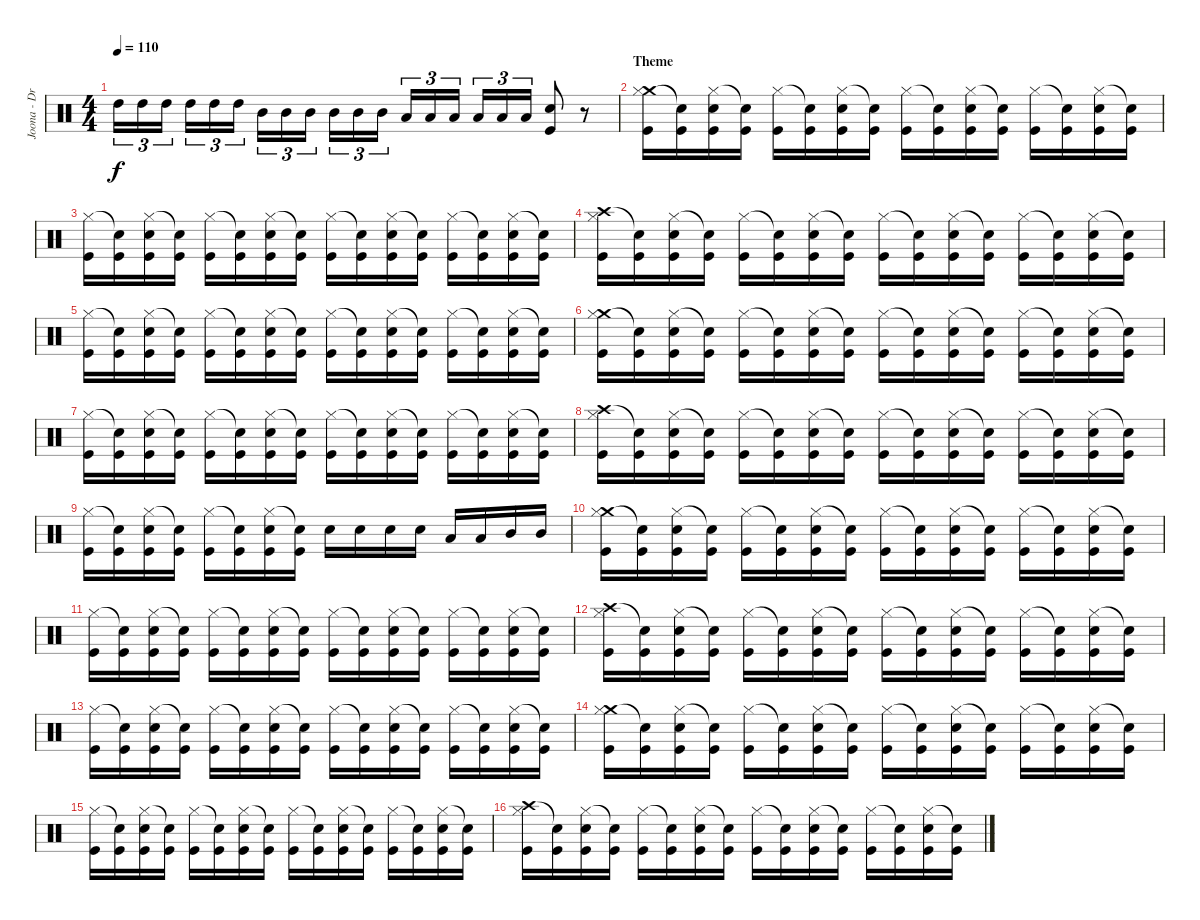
\track ("Joona - Drums" "Joona - Dr") {instrument percussion}
\staff {score}
\articulation defaults
\ts (4 4)
\tempo 110
\clef neutral
\ks c "High Tom (hit)".16{tu (3 2) dy f} "High Tom (hit)".16{tu (3 2)} "High Tom (hit)".16{tu (3 2)} "High Tom (hit)".16{tu (3 2)} "High Tom (hit)".16{tu (3 2)} "High Tom (hit)".16{tu (3 2)} "Mid Tom (hit)".16{tu (3 2)} "Mid Tom (hit)".16{tu (3 2)} "Mid Tom (hit)".16{tu (3 2)} "Mid Tom (hit)".16{tu (3 2)} "Mid Tom (hit)".16{tu (3 2)} "Mid Tom (hit)".16{tu (3 2)} "Low Tom (hit)".16{tu (3 2)} "Low Tom (hit)".16{tu (3 2)} "Low Tom (hit)".16{tu (3 2)} "Low Tom (hit)".16{tu (3 2)} "Low Tom (hit)".16{tu (3 2)} "Low Tom (hit)".16{tu (3 2)}
("Snare (hit) 2" "Kick (hit)").8 r.8 |
\section ("" "Theme")
("Crash medium (hit)" "Hi-Hat (closed)" "Kick (hit)").16 ("Snare (hit)"{t} "Kick (hit)").16 ("Hi-Hat (closed)" "Snare (hit) 2" "Kick (hit)").16 ("Snare (hit)"{t} "Kick (hit)").16 ("Hi-Hat (closed)" "Kick (hit)").16 ("Snare (hit)"{t} "Kick (hit)").16 ("Hi-Hat (closed)" "Snare (hit) 2" "Kick (hit)").16 ("Snare (hit)"{t} "Kick (hit)").16 ("Hi-Hat (closed)" "Kick (hit)").16 ("Snare (hit)"{t} "Kick (hit)").16 ("Hi-Hat (closed)" "Snare (hit) 2" "Kick (hit)").16 ("Snare (hit)"{t} "Kick (hit)").16 ("Hi-Hat (closed)" "Kick (hit)").16 ("Snare (hit)"{t} "Kick (hit)").16 ("Hi-Hat (closed)" "Snare (hit) 2" "Kick (hit)").16 ("Snare (hit)"{t} "Kick (hit)").16 |
("Hi-Hat (closed)" "Kick (hit)").16 ("Snare (hit)"{t} "Kick (hit)").16 ("Hi-Hat (closed)" "Snare (hit) 2" "Kick (hit)").16 ("Snare (hit)"{t} "Kick (hit)").16 ("Hi-Hat (closed)" "Kick (hit)").16 ("Snare (hit)"{t} "Kick (hit)").16 ("Hi-Hat (closed)" "Snare (hit) 2" "Kick (hit)").16 ("Snare (hit)"{t} "Kick (hit)").16 ("Hi-Hat (closed)" "Kick (hit)").16 ("Snare (hit)"{t} "Kick (hit)").16 ("Hi-Hat (closed)" "Snare (hit) 2" "Kick (hit)").16 ("Snare (hit)"{t} "Kick (hit)").16 ("Hi-Hat (closed)" "Kick (hit)").16 ("Snare (hit)"{t} "Kick (hit)").16 ("Hi-Hat (closed)" "Snare (hit) 2" "Kick (hit)").16 ("Snare (hit)"{t} "Kick (hit)").16 |
("Crash high (hit)" "Hi-Hat (closed)" "Kick (hit)").16 ("Snare (hit)"{t} "Kick (hit)").16 ("Hi-Hat (closed)" "Snare (hit) 2" "Kick (hit)").16 ("Snare (hit)"{t} "Kick (hit)").16 ("Hi-Hat (closed)" "Kick (hit)").16 ("Snare (hit)"{t} "Kick (hit)").16 ("Hi-Hat (closed)" "Snare (hit) 2" "Kick (hit)").16 ("Snare (hit)"{t} "Kick (hit)").16 ("Hi-Hat (closed)" "Kick (hit)").16 ("Snare (hit)"{t} "Kick (hit)").16 ("Hi-Hat (closed)" "Snare (hit) 2" "Kick (hit)").16 ("Snare (hit)"{t} "Kick (hit)").16 ("Hi-Hat (closed)" "Kick (hit)").16 ("Snare (hit)"{t} "Kick (hit)").16 ("Hi-Hat (closed)" "Snare (hit) 2" "Kick (hit)").16 ("Snare (hit)"{t} "Kick (hit)").16 |
("Hi-Hat (closed)" "Kick (hit)").16 ("Snare (hit)"{t} "Kick (hit)").16 ("Hi-Hat (closed)" "Snare (hit) 2" "Kick (hit)").16 ("Snare (hit)"{t} "Kick (hit)").16 ("Hi-Hat (closed)" "Kick (hit)").16 ("Snare (hit)"{t} "Kick (hit)").16 ("Hi-Hat (closed)" "Snare (hit) 2" "Kick (hit)").16 ("Snare (hit)"{t} "Kick (hit)").16 ("Hi-Hat (closed)" "Kick (hit)").16 ("Snare (hit)"{t} "Kick (hit)").16 ("Hi-Hat (closed)" "Snare (hit) 2" "Kick (hit)").16 ("Snare (hit)"{t} "Kick (hit)").16 ("Hi-Hat (closed)" "Kick (hit)").16 ("Snare (hit)"{t} "Kick (hit)").16 ("Hi-Hat (closed)" "Snare (hit) 2" "Kick (hit)").16 ("Snare (hit)"{t} "Kick (hit)").16 |
("Crash medium (hit)" "Hi-Hat (closed)" "Kick (hit)").16 ("Snare (hit)"{t} "Kick (hit)").16 ("Hi-Hat (closed)" "Snare (hit) 2" "Kick (hit)").16 ("Snare (hit)"{t} "Kick (hit)").16 ("Hi-Hat (closed)" "Kick (hit)").16 ("Snare (hit)"{t} "Kick (hit)").16 ("Hi-Hat (closed)" "Snare (hit) 2" "Kick (hit)").16 ("Snare (hit)"{t} "Kick (hit)").16 ("Hi-Hat (closed)" "Kick (hit)").16 ("Snare (hit)"{t} "Kick (hit)").16 ("Hi-Hat (closed)" "Snare (hit) 2" "Kick (hit)").16 ("Snare (hit)"{t} "Kick (hit)").16 ("Hi-Hat (closed)" "Kick (hit)").16 ("Snare (hit)"{t} "Kick (hit)").16 ("Hi-Hat (closed)" "Snare (hit) 2" "Kick (hit)").16 ("Snare (hit)"{t} "Kick (hit)").16 |
("Hi-Hat (closed)" "Kick (hit)").16 ("Snare (hit)"{t} "Kick (hit)").16 ("Hi-Hat (closed)" "Snare (hit) 2" "Kick (hit)").16 ("Snare (hit)"{t} "Kick (hit)").16 ("Hi-Hat (closed)" "Kick (hit)").16 ("Snare (hit)"{t} "Kick (hit)").16 ("Hi-Hat (closed)" "Snare (hit) 2" "Kick (hit)").16 ("Snare (hit)"{t} "Kick (hit)").16 ("Hi-Hat (closed)" "Kick (hit)").16 ("Snare (hit)"{t} "Kick (hit)").16 ("Hi-Hat (closed)" "Snare (hit) 2" "Kick (hit)").16 ("Snare (hit)"{t} "Kick (hit)").16 ("Hi-Hat (closed)" "Kick (hit)").16 ("Snare (hit)"{t} "Kick (hit)").16 ("Hi-Hat (closed)" "Snare (hit) 2" "Kick (hit)").16 ("Snare (hit)"{t} "Kick (hit)").16 |
("Crash high (hit)" "Hi-Hat (closed)" "Kick (hit)").16 ("Snare (hit)"{t} "Kick (hit)").16 ("Hi-Hat (closed)" "Snare (hit) 2" "Kick (hit)").16 ("Snare (hit)"{t} "Kick (hit)").16 ("Hi-Hat (closed)" "Kick (hit)").16 ("Snare (hit)"{t} "Kick (hit)").16 ("Hi-Hat (closed)" "Snare (hit) 2" "Kick (hit)").16 ("Snare (hit)"{t} "Kick (hit)").16 ("Hi-Hat (closed)" "Kick (hit)").16 ("Snare (hit)"{t} "Kick (hit)").16 ("Hi-Hat (closed)" "Snare (hit) 2" "Kick (hit)").16 ("Snare (hit)"{t} "Kick (hit)").16 ("Hi-Hat (closed)" "Kick (hit)").16 ("Snare (hit)"{t} "Kick (hit)").16 ("Hi-Hat (closed)" "Snare (hit) 2" "Kick (hit)").16 ("Snare (hit)"{t} "Kick (hit)").16 |
("Hi-Hat (closed)" "Kick (hit)").16 ("Snare (hit)"{t} "Kick (hit)").16 ("Hi-Hat (closed)" "Snare (hit) 2" "Kick (hit)").16 ("Snare (hit)"{t} "Kick (hit)").16 ("Hi-Hat (closed)" "Kick (hit)").16 ("Snare (hit)"{t} "Kick (hit)").16 ("Hi-Hat (closed)" "Snare (hit) 2" "Kick (hit)").16 ("Snare (hit)"{t} "Kick (hit)").16 "Snare (hit) 2".16 "Snare (hit) 2".16 "Snare (hit) 2".16 "Snare (hit) 2".16 "Low Tom (hit)".16 "Low Tom (hit)".16 "Mid Tom (hit)".16 "Mid Tom (hit)".16 |
("Crash medium (hit)" "Hi-Hat (closed)" "Kick (hit)").16 ("Snare (hit)"{t} "Kick (hit)").16 ("Hi-Hat (closed)" "Snare (hit) 2" "Kick (hit)").16 ("Snare (hit)"{t} "Kick (hit)").16 ("Hi-Hat (closed)" "Kick (hit)").16 ("Snare (hit)"{t} "Kick (hit)").16 ("Hi-Hat (closed)" "Snare (hit) 2" "Kick (hit)").16 ("Snare (hit)"{t} "Kick (hit)").16 ("Hi-Hat (closed)" "Kick (hit)").16 ("Snare (hit)"{t} "Kick (hit)").16 ("Hi-Hat (closed)" "Snare (hit) 2" "Kick (hit)").16 ("Snare (hit)"{t} "Kick (hit)").16 ("Hi-Hat (closed)" "Kick (hit)").16 ("Snare (hit)"{t} "Kick (hit)").16 ("Hi-Hat (closed)" "Snare (hit) 2" "Kick (hit)").16 ("Snare (hit)"{t} "Kick (hit)").16 |
("Hi-Hat (closed)" "Kick (hit)").16 ("Snare (hit)"{t} "Kick (hit)").16 ("Hi-Hat (closed)" "Snare (hit) 2" "Kick (hit)").16 ("Snare (hit)"{t} "Kick (hit)").16 ("Hi-Hat (closed)" "Kick (hit)").16 ("Snare (hit)"{t} "Kick (hit)").16 ("Hi-Hat (closed)" "Snare (hit) 2" "Kick (hit)").16 ("Snare (hit)"{t} "Kick (hit)").16 ("Hi-Hat (closed)" "Kick (hit)").16 ("Snare (hit)"{t} "Kick (hit)").16 ("Hi-Hat (closed)" "Snare (hit) 2" "Kick (hit)").16 ("Snare (hit)"{t} "Kick (hit)").16 ("Hi-Hat (closed)" "Kick (hit)").16 ("Snare (hit)"{t} "Kick (hit)").16 ("Hi-Hat (closed)" "Snare (hit) 2" "Kick (hit)").16 ("Snare (hit)"{t} "Kick (hit)").16 |
("Crash high (hit)" "Hi-Hat (closed)" "Kick (hit)").16 ("Snare (hit)"{t} "Kick (hit)").16 ("Hi-Hat (closed)" "Snare (hit) 2" "Kick (hit)").16 ("Snare (hit)"{t} "Kick (hit)").16 ("Hi-Hat (closed)" "Kick (hit)").16 ("Snare (hit)"{t} "Kick (hit)").16 ("Hi-Hat (closed)" "Snare (hit) 2" "Kick (hit)").16 ("Snare (hit)"{t} "Kick (hit)").16 ("Hi-Hat (closed)" "Kick (hit)").16 ("Snare (hit)"{t} "Kick (hit)").16 ("Hi-Hat (closed)" "Snare (hit) 2" "Kick (hit)").16 ("Snare (hit)"{t} "Kick (hit)").16 ("Hi-Hat (closed)" "Kick (hit)").16 ("Snare (hit)"{t} "Kick (hit)").16 ("Hi-Hat (closed)" "Snare (hit) 2" "Kick (hit)").16 ("Snare (hit)"{t} "Kick (hit)").16 |
("Hi-Hat (closed)" "Kick (hit)").16 ("Snare (hit)"{t} "Kick (hit)").16 ("Hi-Hat (closed)" "Snare (hit) 2" "Kick (hit)").16 ("Snare (hit)"{t} "Kick (hit)").16 ("Hi-Hat (closed)" "Kick (hit)").16 ("Snare (hit)"{t} "Kick (hit)").16 ("Hi-Hat (closed)" "Snare (hit) 2" "Kick (hit)").16 ("Snare (hit)"{t} "Kick (hit)").16 ("Hi-Hat (closed)" "Kick (hit)").16 ("Snare (hit)"{t} "Kick (hit)").16 ("Hi-Hat (closed)" "Snare (hit) 2" "Kick (hit)").16 ("Snare (hit)"{t} "Kick (hit)").16 ("Hi-Hat (closed)" "Kick (hit)").16 ("Snare (hit)"{t} "Kick (hit)").16 ("Hi-Hat (closed)" "Snare (hit) 2" "Kick (hit)").16 ("Snare (hit)"{t} "Kick (hit)").16 |
("Crash medium (hit)" "Hi-Hat (closed)" "Kick (hit)").16 ("Snare (hit)"{t} "Kick (hit)").16 ("Hi-Hat (closed)" "Snare (hit) 2" "Kick (hit)").16 ("Snare (hit)"{t} "Kick (hit)").16 ("Hi-Hat (closed)" "Kick (hit)").16 ("Snare (hit)"{t} "Kick (hit)").16 ("Hi-Hat (closed)" "Snare (hit) 2" "Kick (hit)").16 ("Snare (hit)"{t} "Kick (hit)").16 ("Hi-Hat (closed)" "Kick (hit)").16 ("Snare (hit)"{t} "Kick (hit)").16 ("Hi-Hat (closed)" "Snare (hit) 2" "Kick (hit)").16 ("Snare (hit)"{t} "Kick (hit)").16 ("Hi-Hat (closed)" "Kick (hit)").16 ("Snare (hit)"{t} "Kick (hit)").16 ("Hi-Hat (closed)" "Snare (hit) 2" "Kick (hit)").16 ("Snare (hit)"{t} "Kick (hit)").16 |
("Hi-Hat (closed)" "Kick (hit)").16 ("Snare (hit)"{t} "Kick (hit)").16 ("Hi-Hat (closed)" "Snare (hit) 2" "Kick (hit)").16 ("Snare (hit)"{t} "Kick (hit)").16 ("Hi-Hat (closed)" "Kick (hit)").16 ("Snare (hit)"{t} "Kick (hit)").16 ("Hi-Hat (closed)" "Snare (hit) 2" "Kick (hit)").16 ("Snare (hit)"{t} "Kick (hit)").16 ("Hi-Hat (closed)" "Kick (hit)").16 ("Snare (hit)"{t} "Kick (hit)").16 ("Hi-Hat (closed)" "Snare (hit) 2" "Kick (hit)").16 ("Snare (hit)"{t} "Kick (hit)").16 ("Hi-Hat (closed)" "Kick (hit)").16 ("Snare (hit)"{t} "Kick (hit)").16 ("Hi-Hat (closed)" "Snare (hit) 2" "Kick (hit)").16 ("Snare (hit)"{t} "Kick (hit)").16 |
("Crash high (hit)" "Hi-Hat (closed)" "Kick (hit)").16 ("Snare (hit)"{t} "Kick (hit)").16 ("Hi-Hat (closed)" "Snare (hit) 2" "Kick (hit)").16 ("Snare (hit)"{t} "Kick (hit)").16 ("Hi-Hat (closed)" "Kick (hit)").16 ("Snare (hit)"{t} "Kick (hit)").16 ("Hi-Hat (closed)" "Snare (hit) 2" "Kick (hit)").16 ("Snare (hit)"{t} "Kick (hit)").16 ("Hi-Hat (closed)" "Kick (hit)").16 ("Snare (hit)"{t} "Kick (hit)").16 ("Hi-Hat (closed)" "Snare (hit) 2" "Kick (hit)").16 ("Snare (hit)"{t} "Kick (hit)").16 ("Hi-Hat (closed)" "Kick (hit)").16 ("Snare (hit)"{t} "Kick (hit)").16 ("Hi-Hat (closed)" "Snare (hit) 2" "Kick (hit)").16 ("Snare (hit)"{t} "Kick (hit)").16
